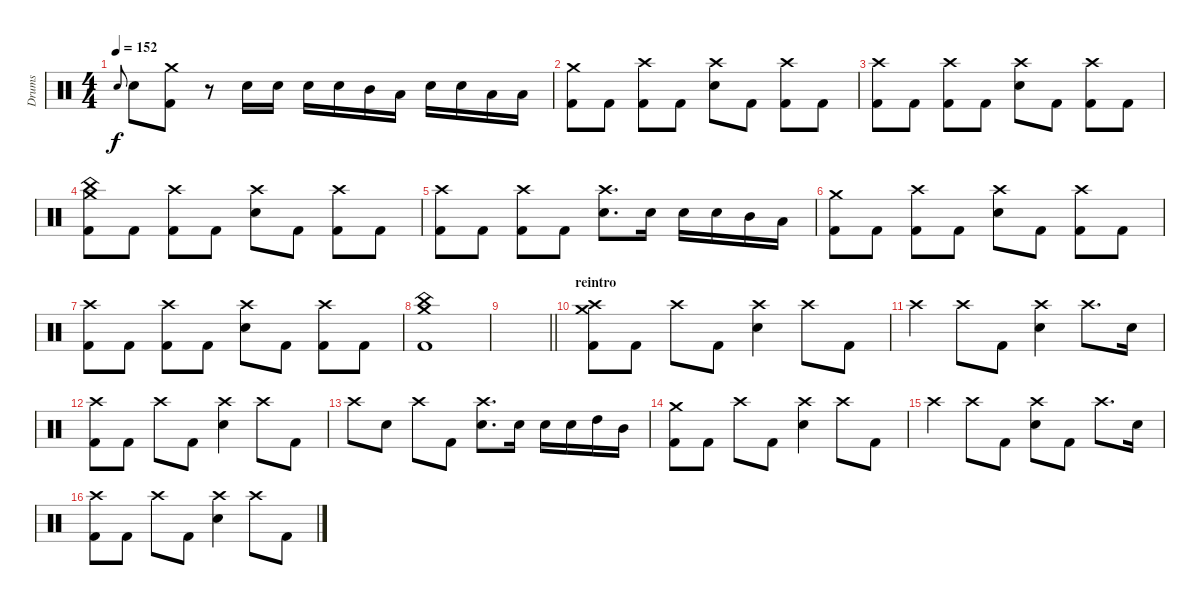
\track ("Drums" "Drums") {instrument percussion}
\staff {score}
\articulation defaults
\ts (4 4)
\tempo 152
\clef neutral
\ks c "Electric Snare (hit)".8{gr onbeat dy f} "Electric Snare (hit)".8
("Crash medium (hit)" "Kick (hit) 2").8 r.8 "Electric Snare (hit)".16 "Electric Snare (hit)".16 "Electric Snare (hit)".16 "Electric Snare (hit)".16 "Mid Tom (hit)".16 "Low Tom (hit)".16 "Electric Snare (hit)".16 "Electric Snare (hit)".16 "Low Tom (hit)".16 "Low Tom (hit)".16 |
("Crash medium (hit)" "Kick (hit) 2").8 "Kick (hit) 2".8 ("Crash high (hit)" "Kick (hit) 2").8 "Kick (hit) 2".8 ("Crash high (hit)" "Electric Snare (hit)").8 "Kick (hit) 2".8 ("Crash high (hit)" "Kick (hit) 2").8 "Kick (hit) 2".8 |
("Crash high (hit)" "Kick (hit) 2").8 "Kick (hit) 2".8 ("Crash high (hit)" "Kick (hit) 2").8 "Kick (hit) 2".8 ("Crash high (hit)" "Electric Snare (hit)").8 "Kick (hit) 2".8 ("Crash high (hit)" "Kick (hit) 2").8 "Kick (hit) 2".8 |
("Crash medium (hit)" "China (hit)" "Kick (hit) 2").8 "Kick (hit) 2".8 ("Crash high (hit)" "Kick (hit) 2").8 "Kick (hit) 2".8 ("Crash high (hit)" "Electric Snare (hit)").8 "Kick (hit) 2".8 ("Crash high (hit)" "Kick (hit) 2").8 "Kick (hit) 2".8 |
("Crash high (hit)" "Kick (hit) 2").8 "Kick (hit) 2".8 ("Crash high (hit)" "Kick (hit) 2").8 "Kick (hit) 2".8 ("Crash high (hit)" "Electric Snare (hit)").8{d} "Electric Snare (hit)".16 "Electric Snare (hit)".16 "Electric Snare (hit)".16 "Mid Tom (hit)".16 "Low Tom (hit)".16 |
("Crash medium (hit)" "Kick (hit) 2").8 "Kick (hit) 2".8 ("Crash high (hit)" "Kick (hit) 2").8 "Kick (hit) 2".8 ("Crash high (hit)" "Electric Snare (hit)").8 "Kick (hit) 2".8 ("Crash high (hit)" "Kick (hit) 2").8 "Kick (hit) 2".8 |
("Crash high (hit)" "Kick (hit) 2").8 "Kick (hit) 2".8 ("Crash high (hit)" "Kick (hit) 2").8 "Kick (hit) 2".8 ("Crash high (hit)" "Electric Snare (hit)").8 "Kick (hit) 2".8 ("Crash high (hit)" "Kick (hit) 2").8 "Kick (hit) 2".8 |
("China (hit)" "Crash medium (hit)" "Kick (hit) 2").1 |
\barLineRight lightlight
|
\section ("" "reintro")
("Crash high (hit)" "Crash medium (hit)" "Kick (hit) 2").8 "Kick (hit) 2".8 "Crash high (hit)".8 "Kick (hit) 2".8 ("Crash high (hit)" "Electric Snare (hit)").4 "Crash high (hit)".8 "Kick (hit) 2".8 |
"Crash high (hit)".4 "Crash high (hit)".8 "Kick (hit) 2".8 ("Crash high (hit)" "Electric Snare (hit)").4 "Crash high (hit)".8{d} "Electric Snare (hit)".16 |
("Crash high (hit)" "Kick (hit) 2").8 "Kick (hit) 2".8 "Crash high (hit)".8 "Kick (hit) 2".8 ("Crash high (hit)" "Electric Snare (hit)").4 "Crash high (hit)".8 "Kick (hit) 2".8 |
"Crash high (hit)".8 "Electric Snare (hit)".8 "Crash high (hit)".8 "Kick (hit) 2".8 ("Crash high (hit)" "Electric Snare (hit)").8{d} "Electric Snare (hit)".16 "Electric Snare (hit)".16 "Electric Snare (hit)".16 "High Tom (hit)".16 "Mid Tom (hit)".16 |
("Crash medium (hit)" "Kick (hit) 2").8 "Kick (hit) 2".8 "Crash high (hit)".8 "Kick (hit) 2".8 ("Crash high (hit)" "Electric Snare (hit)").4 "Crash high (hit)".8 "Kick (hit) 2".8 |
"Crash high (hit)".4 "Crash high (hit)".8 "Kick (hit) 2".8 ("Crash high (hit)" "Electric Snare (hit)").8 "Kick (hit) 2".8 "Crash high (hit)".8{d} "Electric Snare (hit)".16 |
("Crash high (hit)" "Kick (hit) 2").8 "Kick (hit) 2".8 "Crash high (hit)".8 "Kick (hit) 2".8 ("Crash high (hit)" "Electric Snare (hit)").4 "Crash high (hit)".8 "Kick (hit) 2".8
